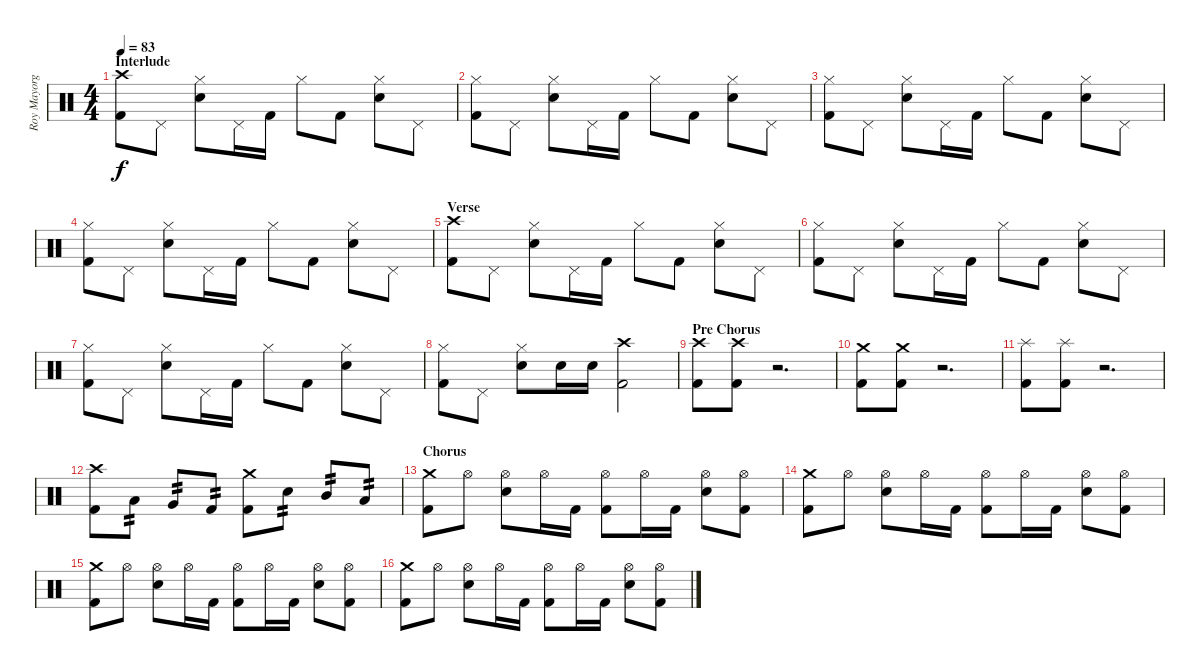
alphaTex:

\track ("Roy Mayorga" "Roy Mayorg") {instrument percussion}
\staff {score}
\articulation defaults
\ts (4 4)
\section ("" "Interlude")
\tempo 83
\clef neutral
\ks c
("Crash high (hit)" "Kick (hit) 2").8{dy f} "Pedal Hi-Hat (hit)".8 ("Hi-Hat (closed)" "Electric Snare (hit)").8 "Pedal Hi-Hat (hit)".16 "Kick (hit) 2".16 "Hi-Hat (closed)".8 "Kick (hit) 2".8 ("Electric Snare (hit)" "Hi-Hat (closed)").8 "Pedal Hi-Hat (hit)".8 |
("Hi-Hat (closed)" "Kick (hit) 2").8 "Pedal Hi-Hat (hit)".8 ("Hi-Hat (closed)" "Electric Snare (hit)").8 "Pedal Hi-Hat (hit)".16 "Kick (hit) 2".16 "Hi-Hat (closed)".8 "Kick (hit) 2".8 ("Electric Snare (hit)" "Hi-Hat (closed)").8 "Pedal Hi-Hat (hit)".8 |
("Hi-Hat (closed)" "Kick (hit) 2").8 "Pedal Hi-Hat (hit)".8 ("Hi-Hat (closed)" "Electric Snare (hit)").8 "Pedal Hi-Hat (hit)".16 "Kick (hit) 2".16 "Hi-Hat (closed)".8 "Kick (hit) 2".8 ("Electric Snare (hit)" "Hi-Hat (closed)").8 "Pedal Hi-Hat (hit)".8 |
("Hi-Hat (closed)" "Kick (hit) 2").8 "Pedal Hi-Hat (hit)".8 ("Hi-Hat (closed)" "Electric Snare (hit)").8 "Pedal Hi-Hat (hit)".16 "Kick (hit) 2".16 "Hi-Hat (closed)".8 "Kick (hit) 2".8 ("Electric Snare (hit)" "Hi-Hat (closed)").8 "Pedal Hi-Hat (hit)".8 |
\section ("" "Verse")
("Crash high (hit)" "Kick (hit) 2").8 "Pedal Hi-Hat (hit)".8 ("Hi-Hat (closed)" "Electric Snare (hit)").8 "Pedal Hi-Hat (hit)".16 "Kick (hit) 2".16 "Hi-Hat (closed)".8 "Kick (hit) 2".8 ("Electric Snare (hit)" "Hi-Hat (closed)").8 "Pedal Hi-Hat (hit)".8 |
("Hi-Hat (closed)" "Kick (hit) 2").8 "Pedal Hi-Hat (hit)".8 ("Hi-Hat (closed)" "Electric Snare (hit)").8 "Pedal Hi-Hat (hit)".16 "Kick (hit) 2".16 "Hi-Hat (closed)".8 "Kick (hit) 2".8 ("Electric Snare (hit)" "Hi-Hat (closed)").8 "Pedal Hi-Hat (hit)".8 |
("Hi-Hat (closed)" "Kick (hit) 2").8 "Pedal Hi-Hat (hit)".8 ("Hi-Hat (closed)" "Electric Snare (hit)").8 "Pedal Hi-Hat (hit)".16 "Kick (hit) 2".16 "Hi-Hat (closed)".8 "Kick (hit) 2".8 ("Electric Snare (hit)" "Hi-Hat (closed)").8 "Pedal Hi-Hat (hit)".8 |
("Hi-Hat (closed)" "Kick (hit) 2").8 "Pedal Hi-Hat (hit)".8 ("Hi-Hat (closed)" "Electric Snare (hit)").8 "Electric Snare (hit)".16 "Electric Snare (hit)".16 ("Kick (hit) 2" "Crash high (hit)").2 |
\section ("" "Pre Chorus")
("Crash high (hit)" "Kick (hit) 2").8 ("Crash high (hit)" "Kick (hit) 2").8 r.2{d} |
("Crash medium (hit)" "Kick (hit) 2").8 ("Crash medium (hit)" "Kick (hit) 2").8 r.2{d} |
("Splash (hit)" "Kick (hit) 2").8 ("Splash (hit)" "Kick (hit) 2").8 r.2{d} |
("Crash high (hit)" "Kick (hit) 2").8 "Low Floor Tom (hit)".8{tp 2} "Very Low Tom (hit)".8{tp 2} "Kick (hit) 2".8{tp 2} ("Crash medium (hit)" "Kick (hit) 2").8 "Electric Snare (hit)".8{tp 2} "Mid Tom (hit)".8{tp 2} "Low Tom (hit)".8{tp 2} |
\section ("" "Chorus")
("Crash medium (hit)" "Kick (hit) 2").8 "Hi-Hat (open)".8 ("Hi-Hat (open)" "Electric Snare (hit)").8 "Hi-Hat (open)".16 "Kick (hit) 2".16 ("Kick (hit) 2" "Hi-Hat (open)").8 "Hi-Hat (open)".16 "Kick (hit) 2".16 ("Electric Snare (hit)" "Hi-Hat (open)").8 ("Hi-Hat (open)" "Kick (hit) 2").8 |
("Crash medium (hit)" "Kick (hit) 2").8 "Hi-Hat (open)".8 ("Hi-Hat (open)" "Electric Snare (hit)").8 "Hi-Hat (open)".16 "Kick (hit) 2".16 ("Kick (hit) 2" "Hi-Hat (open)").8 "Hi-Hat (open)".16 "Kick (hit) 2".16 ("Electric Snare (hit)" "Hi-Hat (open)").8 ("Hi-Hat (open)" "Kick (hit) 2").8 |
("Crash medium (hit)" "Kick (hit) 2").8 "Hi-Hat (open)".8 ("Hi-Hat (open)" "Electric Snare (hit)").8 "Hi-Hat (open)".16 "Kick (hit) 2".16 ("Kick (hit) 2" "Hi-Hat (open)").8 "Hi-Hat (open)".16 "Kick (hit) 2".16 ("Electric Snare (hit)" "Hi-Hat (open)").8 ("Hi-Hat (open)" "Kick (hit) 2").8 |
("Crash medium (hit)" "Kick (hit) 2").8 "Hi-Hat (open)".8 ("Hi-Hat (open)" "Electric Snare (hit)").8 "Hi-Hat (open)".16 "Kick (hit) 2".16 ("Kick (hit) 2" "Hi-Hat (open)").8 "Hi-Hat (open)".16 "Kick (hit) 2".16 ("Electric Snare (hit)" "Hi-Hat (open)").8 ("Hi-Hat (open)" "Kick (hit) 2").8
